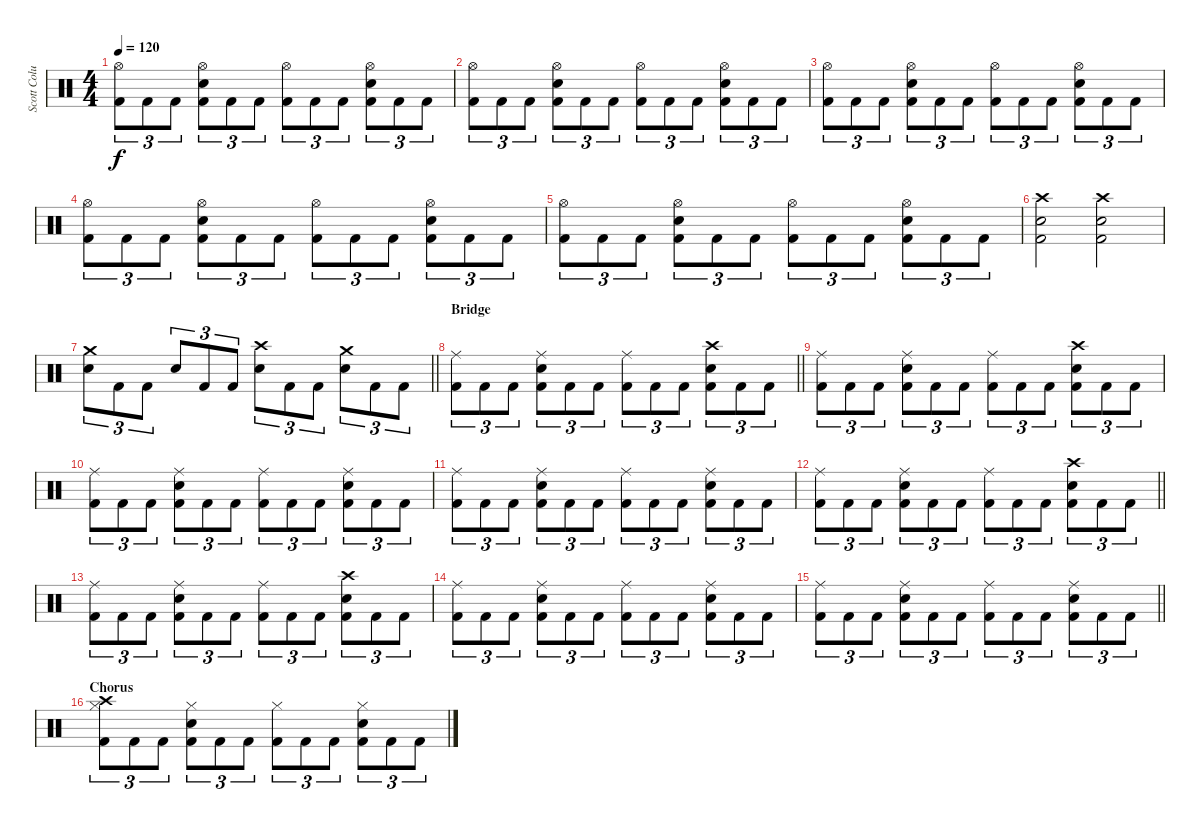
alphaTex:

\track ("Scott Columbus" "Scott Colu") {instrument percussion}
\staff {score}
\articulation defaults
\ts (4 4)
\tempo 120
\clef neutral
\ks c
("Hi-Hat (open)" "Kick (hit) 2").8{tu (3 2) dy f} "Kick (hit) 2".8{tu (3 2)} "Kick (hit) 2".8{tu (3 2)} ("Hi-Hat (open)" "Snare (hit) 2" "Kick (hit) 2").8{tu (3 2)} "Kick (hit) 2".8{tu (3 2)} "Kick (hit) 2".8{tu (3 2)} ("Hi-Hat (open)" "Kick (hit) 2").8{tu (3 2)} "Kick (hit) 2".8{tu (3 2)} "Kick (hit) 2".8{tu (3 2)} ("Hi-Hat (open)" "Snare (hit) 2" "Kick (hit) 2").8{tu (3 2)} "Kick (hit) 2".8{tu (3 2)} "Kick (hit) 2".8{tu (3 2)} |
("Hi-Hat (open)" "Kick (hit) 2").8{tu (3 2)} "Kick (hit) 2".8{tu (3 2)} "Kick (hit) 2".8{tu (3 2)} ("Hi-Hat (open)" "Snare (hit) 2" "Kick (hit) 2").8{tu (3 2)} "Kick (hit) 2".8{tu (3 2)} "Kick (hit) 2".8{tu (3 2)} ("Hi-Hat (open)" "Kick (hit) 2").8{tu (3 2)} "Kick (hit) 2".8{tu (3 2)} "Kick (hit) 2".8{tu (3 2)} ("Hi-Hat (open)" "Snare (hit) 2" "Kick (hit) 2").8{tu (3 2)} "Kick (hit) 2".8{tu (3 2)} "Kick (hit) 2".8{tu (3 2)} |
("Hi-Hat (open)" "Kick (hit) 2").8{tu (3 2)} "Kick (hit) 2".8{tu (3 2)} "Kick (hit) 2".8{tu (3 2)} ("Hi-Hat (open)" "Snare (hit) 2" "Kick (hit) 2").8{tu (3 2)} "Kick (hit) 2".8{tu (3 2)} "Kick (hit) 2".8{tu (3 2)} ("Hi-Hat (open)" "Kick (hit) 2").8{tu (3 2)} "Kick (hit) 2".8{tu (3 2)} "Kick (hit) 2".8{tu (3 2)} ("Hi-Hat (open)" "Snare (hit) 2" "Kick (hit) 2").8{tu (3 2)} "Kick (hit) 2".8{tu (3 2)} "Kick (hit) 2".8{tu (3 2)} |
("Hi-Hat (open)" "Kick (hit) 2").8{tu (3 2)} "Kick (hit) 2".8{tu (3 2)} "Kick (hit) 2".8{tu (3 2)} ("Hi-Hat (open)" "Snare (hit) 2" "Kick (hit) 2").8{tu (3 2)} "Kick (hit) 2".8{tu (3 2)} "Kick (hit) 2".8{tu (3 2)} ("Hi-Hat (open)" "Kick (hit) 2").8{tu (3 2)} "Kick (hit) 2".8{tu (3 2)} "Kick (hit) 2".8{tu (3 2)} ("Hi-Hat (open)" "Snare (hit) 2" "Kick (hit) 2").8{tu (3 2)} "Kick (hit) 2".8{tu (3 2)} "Kick (hit) 2".8{tu (3 2)} |
("Hi-Hat (open)" "Kick (hit) 2").8{tu (3 2)} "Kick (hit) 2".8{tu (3 2)} "Kick (hit) 2".8{tu (3 2)} ("Hi-Hat (open)" "Snare (hit) 2" "Kick (hit) 2").8{tu (3 2)} "Kick (hit) 2".8{tu (3 2)} "Kick (hit) 2".8{tu (3 2)} ("Hi-Hat (open)" "Kick (hit) 2").8{tu (3 2)} "Kick (hit) 2".8{tu (3 2)} "Kick (hit) 2".8{tu (3 2)} ("Hi-Hat (open)" "Snare (hit) 2" "Kick (hit) 2").8{tu (3 2)} "Kick (hit) 2".8{tu (3 2)} "Kick (hit) 2".8{tu (3 2)} |
("Crash high (hit)" "Snare (hit) 2" "Kick (hit) 2").2 ("Crash high (hit)" "Snare (hit) 2" "Kick (hit) 2").2 |
\barLineRight lightlight
("Crash medium (hit)" "Snare (hit) 2").8{tu (3 2)} "Kick (hit) 2".8{tu (3 2)} "Kick (hit) 2".8{tu (3 2)} "Snare (hit) 2".8{tu (3 2)} "Kick (hit) 2".8{tu (3 2)} "Kick (hit) 2".8{tu (3 2)} ("Crash high (hit)" "Snare (hit) 2").8{tu (3 2)} "Kick (hit) 2".8{tu (3 2)} "Kick (hit) 2".8{tu (3 2)} ("Crash medium (hit)" "Snare (hit) 2").8{tu (3 2)} "Kick (hit) 2".8{tu (3 2)} "Kick (hit) 2".8{tu (3 2)} |
\section ("" "Bridge")
\barLineRight lightlight
("Ride (middle)" "Kick (hit) 2").8{tu (3 2)} "Kick (hit) 2".8{tu (3 2)} "Kick (hit) 2".8{tu (3 2)} ("Ride (middle)" "Snare (hit) 2" "Kick (hit) 2").8{tu (3 2)} "Kick (hit) 2".8{tu (3 2)} "Kick (hit) 2".8{tu (3 2)} ("Ride (middle)" "Kick (hit) 2").8{tu (3 2)} "Kick (hit) 2".8{tu (3 2)} "Kick (hit) 2".8{tu (3 2)} ("Crash high (hit)" "Snare (hit) 2" "Kick (hit) 2").8{tu (3 2)} "Kick (hit) 2".8{tu (3 2)} "Kick (hit) 2".8{tu (3 2)} |
("Ride (middle)" "Kick (hit) 2").8{tu (3 2)} "Kick (hit) 2".8{tu (3 2)} "Kick (hit) 2".8{tu (3 2)} ("Ride (middle)" "Snare (hit) 2" "Kick (hit) 2").8{tu (3 2)} "Kick (hit) 2".8{tu (3 2)} "Kick (hit) 2".8{tu (3 2)} ("Ride (middle)" "Kick (hit) 2").8{tu (3 2)} "Kick (hit) 2".8{tu (3 2)} "Kick (hit) 2".8{tu (3 2)} ("Crash high (hit)" "Snare (hit) 2" "Kick (hit) 2").8{tu (3 2)} "Kick (hit) 2".8{tu (3 2)} "Kick (hit) 2".8{tu (3 2)} |
("Ride (middle)" "Kick (hit) 2").8{tu (3 2)} "Kick (hit) 2".8{tu (3 2)} "Kick (hit) 2".8{tu (3 2)} ("Ride (middle)" "Snare (hit) 2" "Kick (hit) 2").8{tu (3 2)} "Kick (hit) 2".8{tu (3 2)} "Kick (hit) 2".8{tu (3 2)} ("Ride (middle)" "Kick (hit) 2").8{tu (3 2)} "Kick (hit) 2".8{tu (3 2)} "Kick (hit) 2".8{tu (3 2)} ("Ride (middle)" "Snare (hit) 2" "Kick (hit) 2").8{tu (3 2)} "Kick (hit) 2".8{tu (3 2)} "Kick (hit) 2".8{tu (3 2)} |
("Ride (middle)" "Kick (hit) 2").8{tu (3 2)} "Kick (hit) 2".8{tu (3 2)} "Kick (hit) 2".8{tu (3 2)} ("Ride (middle)" "Snare (hit) 2" "Kick (hit) 2").8{tu (3 2)} "Kick (hit) 2".8{tu (3 2)} "Kick (hit) 2".8{tu (3 2)} ("Ride (middle)" "Kick (hit) 2").8{tu (3 2)} "Kick (hit) 2".8{tu (3 2)} "Kick (hit) 2".8{tu (3 2)} ("Ride (middle)" "Snare (hit) 2" "Kick (hit) 2").8{tu (3 2)} "Kick (hit) 2".8{tu (3 2)} "Kick (hit) 2".8{tu (3 2)} |
\barLineRight lightlight
("Ride (middle)" "Kick (hit) 2").8{tu (3 2)} "Kick (hit) 2".8{tu (3 2)} "Kick (hit) 2".8{tu (3 2)} ("Ride (middle)" "Snare (hit) 2" "Kick (hit) 2").8{tu (3 2)} "Kick (hit) 2".8{tu (3 2)} "Kick (hit) 2".8{tu (3 2)} ("Ride (middle)" "Kick (hit) 2").8{tu (3 2)} "Kick (hit) 2".8{tu (3 2)} "Kick (hit) 2".8{tu (3 2)} ("Crash high (hit)" "Snare (hit) 2" "Kick (hit) 2").8{tu (3 2)} "Kick (hit) 2".8{tu (3 2)} "Kick (hit) 2".8{tu (3 2)} |
("Ride (middle)" "Kick (hit) 2").8{tu (3 2)} "Kick (hit) 2".8{tu (3 2)} "Kick (hit) 2".8{tu (3 2)} ("Ride (middle)" "Snare (hit) 2" "Kick (hit) 2").8{tu (3 2)} "Kick (hit) 2".8{tu (3 2)} "Kick (hit) 2".8{tu (3 2)} ("Ride (middle)" "Kick (hit) 2").8{tu (3 2)} "Kick (hit) 2".8{tu (3 2)} "Kick (hit) 2".8{tu (3 2)} ("Crash high (hit)" "Snare (hit) 2" "Kick (hit) 2").8{tu (3 2)} "Kick (hit) 2".8{tu (3 2)} "Kick (hit) 2".8{tu (3 2)} |
("Ride (middle)" "Kick (hit) 2").8{tu (3 2)} "Kick (hit) 2".8{tu (3 2)} "Kick (hit) 2".8{tu (3 2)} ("Ride (middle)" "Snare (hit) 2" "Kick (hit) 2").8{tu (3 2)} "Kick (hit) 2".8{tu (3 2)} "Kick (hit) 2".8{tu (3 2)} ("Ride (middle)" "Kick (hit) 2").8{tu (3 2)} "Kick (hit) 2".8{tu (3 2)} "Kick (hit) 2".8{tu (3 2)} ("Ride (middle)" "Snare (hit) 2" "Kick (hit) 2").8{tu (3 2)} "Kick (hit) 2".8{tu (3 2)} "Kick (hit) 2".8{tu (3 2)} |
\barLineRight lightlight
("Ride (middle)" "Kick (hit) 2").8{tu (3 2)} "Kick (hit) 2".8{tu (3 2)} "Kick (hit) 2".8{tu (3 2)} ("Ride (middle)" "Snare (hit) 2" "Kick (hit) 2").8{tu (3 2)} "Kick (hit) 2".8{tu (3 2)} "Kick (hit) 2".8{tu (3 2)} ("Ride (middle)" "Kick (hit) 2").8{tu (3 2)} "Kick (hit) 2".8{tu (3 2)} "Kick (hit) 2".8{tu (3 2)} ("Ride (middle)" "Snare (hit) 2" "Kick (hit) 2").8{tu (3 2)} "Kick (hit) 2".8{tu (3 2)} "Kick (hit) 2".8{tu (3 2)} |
\section ("" "Chorus")
("Crash high (hit)" "Hi-Hat (closed)" "Kick (hit) 2").8{tu (3 2)} "Kick (hit) 2".8{tu (3 2)} "Kick (hit) 2".8{tu (3 2)} ("Hi-Hat (closed)" "Snare (hit) 2" "Kick (hit) 2").8{tu (3 2)} "Kick (hit) 2".8{tu (3 2)} "Kick (hit) 2".8{tu (3 2)} ("Hi-Hat (closed)" "Kick (hit) 2").8{tu (3 2)} "Kick (hit) 2".8{tu (3 2)} "Kick (hit) 2".8{tu (3 2)} ("Hi-Hat (closed)" "Snare (hit) 2" "Kick (hit) 2").8{tu (3 2)} "Kick (hit) 2".8{tu (3 2)} "Kick (hit) 2".8{tu (3 2)}
